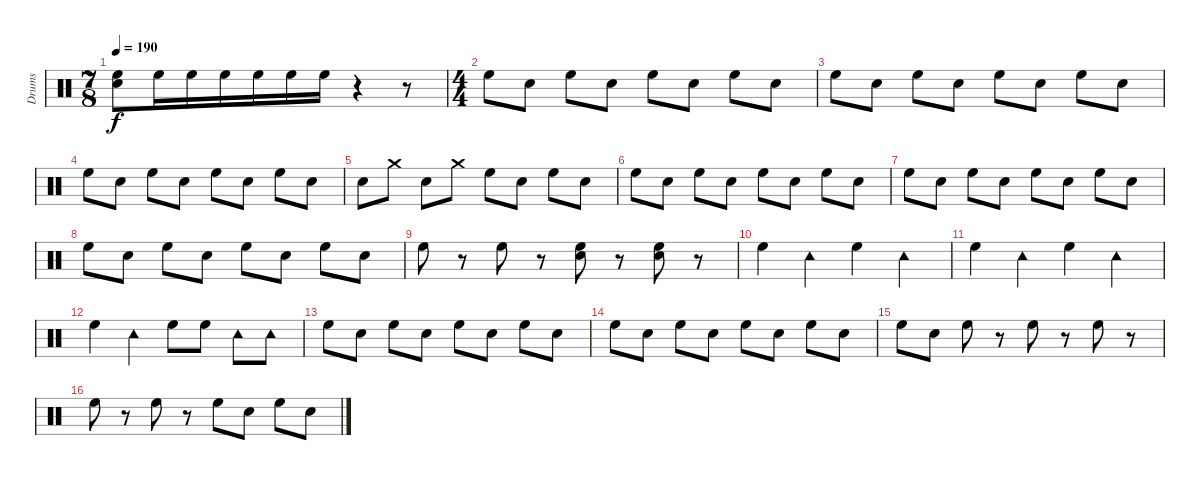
\track ("Drums" "Drums") {instrument percussion}
\staff {score}
\articulation defaults
\ts (7 8)
\tempo 190
\clef neutral
\ks c
("High Floor Tom (hit)" "Electric Snare (hit)").8{dy f} "High Floor Tom (hit)".16 "High Floor Tom (hit)".16 "High Floor Tom (hit)".16 "High Floor Tom (hit)".16 "High Floor Tom (hit)".16 "High Floor Tom (hit)".16 r.4 r.8 |
\ts (4 4)
"High Floor Tom (hit)".8 "Electric Snare (hit)".8 "High Floor Tom (hit)".8 "Electric Snare (hit)".8 "High Floor Tom (hit)".8 "Electric Snare (hit)".8 "High Floor Tom (hit)".8 "Electric Snare (hit)".8 |
"High Floor Tom (hit)".8 "Electric Snare (hit)".8 "High Floor Tom (hit)".8 "Electric Snare (hit)".8 "High Floor Tom (hit)".8 "Electric Snare (hit)".8 "High Floor Tom (hit)".8 "Electric Snare (hit)".8 |
"High Floor Tom (hit)".8 "Electric Snare (hit)".8 "High Floor Tom (hit)".8 "Electric Snare (hit)".8 "High Floor Tom (hit)".8 "Electric Snare (hit)".8 "High Floor Tom (hit)".8 "Electric Snare (hit)".8 |
"Electric Snare (hit)".8 "Crash medium (hit)".8 "Electric Snare (hit)".8 "Crash medium (hit)".8 "High Floor Tom (hit)".8 "Electric Snare (hit)".8 "High Floor Tom (hit)".8 "Electric Snare (hit)".8 |
"High Floor Tom (hit)".8 "Electric Snare (hit)".8 "High Floor Tom (hit)".8 "Electric Snare (hit)".8 "High Floor Tom (hit)".8 "Electric Snare (hit)".8 "High Floor Tom (hit)".8 "Electric Snare (hit)".8 |
"High Floor Tom (hit)".8 "Electric Snare (hit)".8 "High Floor Tom (hit)".8 "Electric Snare (hit)".8 "High Floor Tom (hit)".8 "Electric Snare (hit)".8 "High Floor Tom (hit)".8 "Electric Snare (hit)".8 |
"High Floor Tom (hit)".8 "Electric Snare (hit)".8 "High Floor Tom (hit)".8 "Electric Snare (hit)".8 "High Floor Tom (hit)".8 "Electric Snare (hit)".8 "High Floor Tom (hit)".8 "Electric Snare (hit)".8 |
"High Floor Tom (hit)".8 r.8 "High Floor Tom (hit)".8 r.8 ("High Floor Tom (hit)" "Electric Snare (hit)").8 r.8 ("Electric Snare (hit)" "High Floor Tom (hit)").8 r.8 |
"High Floor Tom (hit)".4 "Tambourine (hit)".4 "High Floor Tom (hit)".4 "Tambourine (hit)".4 |
"High Floor Tom (hit)".4 "Tambourine (hit)".4 "High Floor Tom (hit)".4 "Tambourine (hit)".4 |
"High Floor Tom (hit)".4 "Tambourine (hit)".4 "High Floor Tom (hit)".8 "High Floor Tom (hit)".8 "Tambourine (hit)".8 "Tambourine (hit)".8 |
"High Floor Tom (hit)".8 "Electric Snare (hit)".8 "High Floor Tom (hit)".8 "Electric Snare (hit)".8 "High Floor Tom (hit)".8 "Electric Snare (hit)".8 "High Floor Tom (hit)".8 "Electric Snare (hit)".8 |
"High Floor Tom (hit)".8 "Electric Snare (hit)".8 "High Floor Tom (hit)".8 "Electric Snare (hit)".8 "High Floor Tom (hit)".8 "Electric Snare (hit)".8 "High Floor Tom (hit)".8 "Electric Snare (hit)".8 |
"High Floor Tom (hit)".8 "Electric Snare (hit)".8 "High Floor Tom (hit)".8 r.8 "High Floor Tom (hit)".8 r.8 "High Floor Tom (hit)".8 r.8 |
"High Floor Tom (hit)".8 r.8 "High Floor Tom (hit)".8 r.8 "High Floor Tom (hit)".8 "Electric Snare (hit)".8 "High Floor Tom (hit)".8 "Electric Snare (hit)".8
